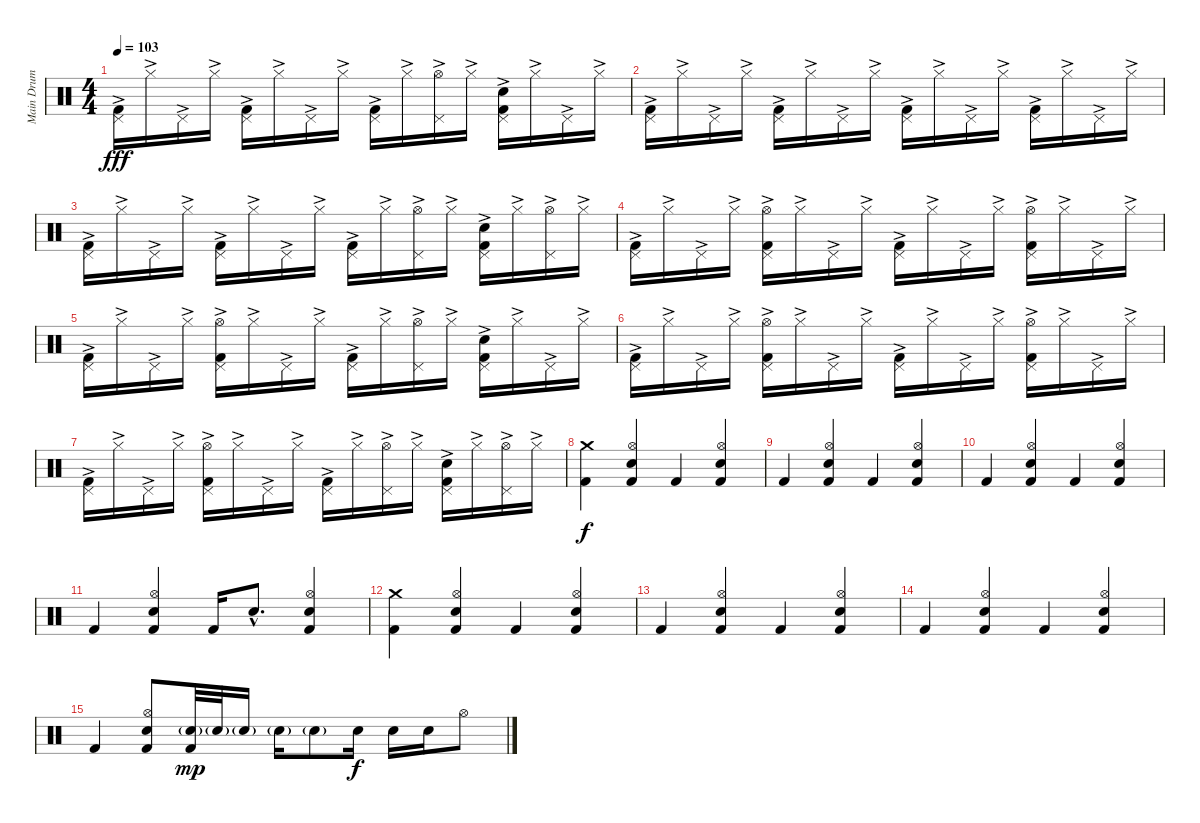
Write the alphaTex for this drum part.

\track ("Main Drum" "Main Drum") {instrument percussion}
\staff {score}
\articulation defaults
\ts (4 4)
\tempo 103
\clef neutral
\ks c
("Pedal Hi-Hat (hit)"{ac} "Kick (hit) 2"{ac}).16{dy fff} "Hi-Hat (closed)"{ac}.16 "Pedal Hi-Hat (hit)"{ac}.16 "Hi-Hat (closed)"{ac}.16 ("Pedal Hi-Hat (hit)"{ac} "Kick (hit) 2"{ac}).16 "Hi-Hat (closed)"{ac}.16 "Pedal Hi-Hat (hit)"{ac}.16 "Hi-Hat (closed)"{ac}.16 ("Pedal Hi-Hat (hit)"{ac} "Kick (hit) 2"{ac}).16 "Hi-Hat (closed)"{ac}.16 ("Pedal Hi-Hat (hit)"{ac} "Hi-Hat (open)"{ac}).16 "Hi-Hat (closed)"{ac}.16 ("Pedal Hi-Hat (hit)"{ac} "Electric Snare (hit)"{ac} "Kick (hit) 2"{ac}).16 "Hi-Hat (closed)"{ac}.16 "Pedal Hi-Hat (hit)"{ac}.16 "Hi-Hat (closed)"{ac}.16 |
("Pedal Hi-Hat (hit)"{ac} "Kick (hit) 2"{ac}).16 "Hi-Hat (closed)"{ac}.16 "Pedal Hi-Hat (hit)"{ac}.16 "Hi-Hat (closed)"{ac}.16 ("Pedal Hi-Hat (hit)"{ac} "Kick (hit) 2"{ac}).16 "Hi-Hat (closed)"{ac}.16 "Pedal Hi-Hat (hit)"{ac}.16 "Hi-Hat (closed)"{ac}.16 ("Pedal Hi-Hat (hit)"{ac} "Kick (hit) 2"{ac}).16 "Hi-Hat (closed)"{ac}.16 "Pedal Hi-Hat (hit)"{ac}.16 "Hi-Hat (closed)"{ac}.16 ("Pedal Hi-Hat (hit)"{ac} "Kick (hit) 2"{ac}).16 "Hi-Hat (closed)"{ac}.16 "Pedal Hi-Hat (hit)"{ac}.16 "Hi-Hat (closed)"{ac}.16 |
("Pedal Hi-Hat (hit)"{ac} "Kick (hit) 2"{ac}).16 "Hi-Hat (closed)"{ac}.16 "Pedal Hi-Hat (hit)"{ac}.16 "Hi-Hat (closed)"{ac}.16 ("Pedal Hi-Hat (hit)"{ac} "Kick (hit) 2"{ac}).16 "Hi-Hat (closed)"{ac}.16 "Pedal Hi-Hat (hit)"{ac}.16 "Hi-Hat (closed)"{ac}.16 ("Pedal Hi-Hat (hit)"{ac} "Kick (hit) 2"{ac}).16 "Hi-Hat (closed)"{ac}.16 ("Pedal Hi-Hat (hit)"{ac} "Hi-Hat (open)"{ac}).16 "Hi-Hat (closed)"{ac}.16 ("Pedal Hi-Hat (hit)"{ac} "Electric Snare (hit)"{ac} "Kick (hit) 2"{ac}).16 "Hi-Hat (closed)"{ac}.16 ("Pedal Hi-Hat (hit)"{ac} "Hi-Hat (open)"{ac}).16 "Hi-Hat (closed)"{ac}.16 |
("Pedal Hi-Hat (hit)"{ac} "Kick (hit) 2"{ac}).16 "Hi-Hat (closed)"{ac}.16 "Pedal Hi-Hat (hit)"{ac}.16 "Hi-Hat (closed)"{ac}.16 ("Pedal Hi-Hat (hit)"{ac} "Hi-Hat (open)"{ac} "Kick (hit) 2"{ac}).16 "Hi-Hat (closed)"{ac}.16 "Pedal Hi-Hat (hit)"{ac}.16 "Hi-Hat (closed)"{ac}.16 ("Pedal Hi-Hat (hit)"{ac} "Kick (hit) 2"{ac}).16 "Hi-Hat (closed)"{ac}.16 "Pedal Hi-Hat (hit)"{ac}.16 "Hi-Hat (closed)"{ac}.16 ("Pedal Hi-Hat (hit)"{ac} "Hi-Hat (open)"{ac} "Kick (hit) 2"{ac}).16 "Hi-Hat (closed)"{ac}.16 "Pedal Hi-Hat (hit)"{ac}.16 "Hi-Hat (closed)"{ac}.16 |
("Pedal Hi-Hat (hit)"{ac} "Kick (hit) 2"{ac}).16 "Hi-Hat (closed)"{ac}.16 "Pedal Hi-Hat (hit)"{ac}.16 "Hi-Hat (closed)"{ac}.16 ("Pedal Hi-Hat (hit)"{ac} "Hi-Hat (open)"{ac} "Kick (hit) 2"{ac}).16 "Hi-Hat (closed)"{ac}.16 "Pedal Hi-Hat (hit)"{ac}.16 "Hi-Hat (closed)"{ac}.16 ("Pedal Hi-Hat (hit)"{ac} "Kick (hit) 2"{ac}).16 "Hi-Hat (closed)"{ac}.16 ("Pedal Hi-Hat (hit)"{ac} "Hi-Hat (open)"{ac}).16 "Hi-Hat (closed)"{ac}.16 ("Pedal Hi-Hat (hit)"{ac} "Electric Snare (hit)"{ac} "Kick (hit) 2"{ac}).16 "Hi-Hat (closed)"{ac}.16 "Pedal Hi-Hat (hit)"{ac}.16 "Hi-Hat (closed)"{ac}.16 |
("Pedal Hi-Hat (hit)"{ac} "Kick (hit) 2"{ac}).16 "Hi-Hat (closed)"{ac}.16 "Pedal Hi-Hat (hit)"{ac}.16 "Hi-Hat (closed)"{ac}.16 ("Pedal Hi-Hat (hit)"{ac} "Hi-Hat (open)"{ac} "Kick (hit) 2"{ac}).16 "Hi-Hat (closed)"{ac}.16 "Pedal Hi-Hat (hit)"{ac}.16 "Hi-Hat (closed)"{ac}.16 ("Pedal Hi-Hat (hit)"{ac} "Kick (hit) 2"{ac}).16 "Hi-Hat (closed)"{ac}.16 "Pedal Hi-Hat (hit)"{ac}.16 "Hi-Hat (closed)"{ac}.16 ("Pedal Hi-Hat (hit)"{ac} "Hi-Hat (open)"{ac} "Kick (hit) 2"{ac}).16 "Hi-Hat (closed)"{ac}.16 "Pedal Hi-Hat (hit)"{ac}.16 "Hi-Hat (closed)"{ac}.16 |
("Pedal Hi-Hat (hit)"{ac} "Kick (hit) 2"{ac}).16 "Hi-Hat (closed)"{ac}.16 "Pedal Hi-Hat (hit)"{ac}.16 "Hi-Hat (closed)"{ac}.16 ("Pedal Hi-Hat (hit)"{ac} "Hi-Hat (open)"{ac} "Kick (hit) 2"{ac}).16 "Hi-Hat (closed)"{ac}.16 "Pedal Hi-Hat (hit)"{ac}.16 "Hi-Hat (closed)"{ac}.16 ("Pedal Hi-Hat (hit)"{ac} "Kick (hit) 2"{ac}).16 "Hi-Hat (closed)"{ac}.16 ("Pedal Hi-Hat (hit)"{ac} "Hi-Hat (open)"{ac}).16 "Hi-Hat (closed)"{ac}.16 ("Pedal Hi-Hat (hit)"{ac} "Electric Snare (hit)"{ac} "Kick (hit) 2"{ac}).16 "Hi-Hat (closed)"{ac}.16 ("Pedal Hi-Hat (hit)"{ac} "Hi-Hat (open)"{ac}).16 "Hi-Hat (closed)"{ac}.16 |
("Crash medium (hit)" "Kick (hit) 2").4{dy f} ("Hi-Hat (open)" "Electric Snare (hit)" "Kick (hit) 2").4 "Kick (hit) 2".4 ("Hi-Hat (open)" "Electric Snare (hit)" "Kick (hit) 2").4 |
"Kick (hit) 2".4 ("Hi-Hat (open)" "Electric Snare (hit)" "Kick (hit) 2").4 "Kick (hit) 2".4 ("Hi-Hat (open)" "Electric Snare (hit)" "Kick (hit) 2").4 |
"Kick (hit) 2".4 ("Hi-Hat (open)" "Electric Snare (hit)" "Kick (hit) 2").4 "Kick (hit) 2".4 ("Hi-Hat (open)" "Electric Snare (hit)" "Kick (hit) 2").4 |
"Kick (hit) 2".4 ("Hi-Hat (open)" "Electric Snare (hit)" "Kick (hit) 2").4 "Kick (hit) 2".16 "Electric Snare (hit)"{hac}.8{d} ("Hi-Hat (open)" "Electric Snare (hit)" "Kick (hit) 2").4 |
("Crash medium (hit)" "Kick (hit) 2").4 ("Hi-Hat (open)" "Electric Snare (hit)" "Kick (hit) 2").4 "Kick (hit) 2".4 ("Hi-Hat (open)" "Electric Snare (hit)" "Kick (hit) 2").4 |
"Kick (hit) 2".4 ("Hi-Hat (open)" "Electric Snare (hit)" "Kick (hit) 2").4 "Kick (hit) 2".4 ("Hi-Hat (open)" "Electric Snare (hit)" "Kick (hit) 2").4 |
"Kick (hit) 2".4 ("Hi-Hat (open)" "Electric Snare (hit)" "Kick (hit) 2").4 "Kick (hit) 2".4 ("Hi-Hat (open)" "Electric Snare (hit)" "Kick (hit) 2").4 |
"Kick (hit) 2".4 ("Hi-Hat (open)" "Electric Snare (hit)" "Kick (hit) 2").8 ("Electric Snare (hit)"{g} "Kick (hit) 2").32{dy mp} "Electric Snare (hit)"{g}.32 "Electric Snare (hit)"{g}.16 "Electric Snare (hit)"{g}.16 "Electric Snare (hit)"{g}.8 "Electric Snare (hit)".16{dy f} "Electric Snare (hit)".16 "Electric Snare (hit)".16 "Hi-Hat (open)".8
